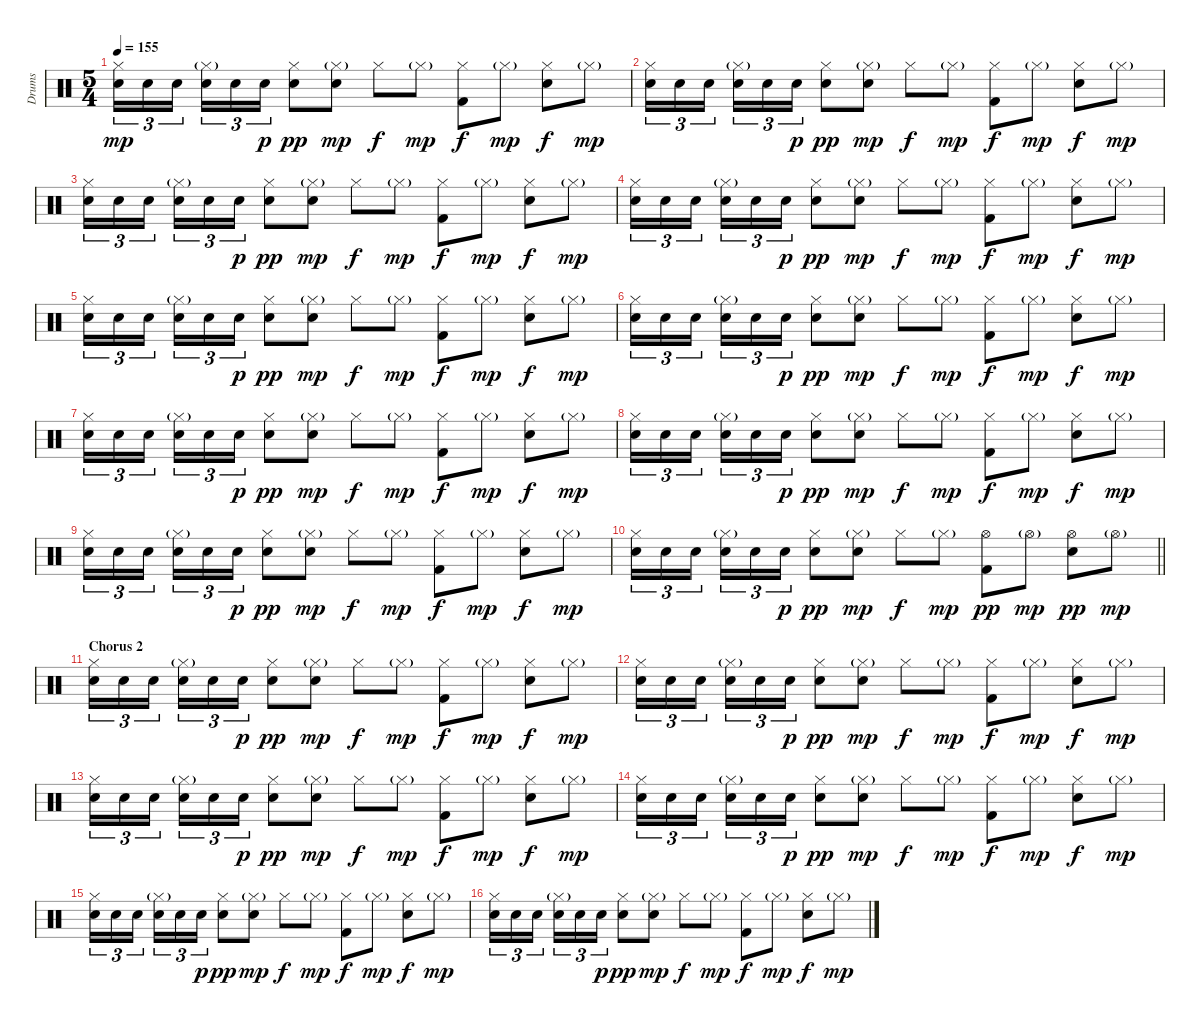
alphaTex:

\track ("Drums" "Drums") {instrument percussion}
\staff {score}
\articulation defaults
\ts (5 4)
\tempo 155
\clef neutral
\ks c
("Hi-Hat (closed)" "Electric Snare (hit)").16{tu (3 2) dy mp} "Electric Snare (hit)".16{tu (3 2)} "Electric Snare (hit)".16{tu (3 2) beam splitsecondary} ("Hi-Hat (closed)"{g} "Electric Snare (hit)").16{tu (3 2)} "Electric Snare (hit)".16{tu (3 2)} "Electric Snare (hit)".16{tu (3 2) dy p} ("Hi-Hat (closed)" "Electric Snare (hit)").8{dy pp} ("Hi-Hat (closed)"{g} "Electric Snare (hit)").8{dy mp} "Hi-Hat (closed)".8{dy f} "Hi-Hat (closed)"{g}.8{dy mp} ("Hi-Hat (closed)" "Kick (hit) 2").8{dy f} "Hi-Hat (closed)"{g}.8{dy mp} ("Hi-Hat (closed)" "Electric Snare (hit)").8{dy f} "Hi-Hat (closed)"{g}.8{dy mp} |
("Hi-Hat (closed)" "Electric Snare (hit)").16{tu (3 2)} "Electric Snare (hit)".16{tu (3 2)} "Electric Snare (hit)".16{tu (3 2) beam splitsecondary} ("Hi-Hat (closed)"{g} "Electric Snare (hit)").16{tu (3 2)} "Electric Snare (hit)".16{tu (3 2)} "Electric Snare (hit)".16{tu (3 2) dy p} ("Hi-Hat (closed)" "Electric Snare (hit)").8{dy pp} ("Hi-Hat (closed)"{g} "Electric Snare (hit)").8{dy mp} "Hi-Hat (closed)".8{dy f} "Hi-Hat (closed)"{g}.8{dy mp} ("Hi-Hat (closed)" "Kick (hit) 2").8{dy f} "Hi-Hat (closed)"{g}.8{dy mp} ("Hi-Hat (closed)" "Electric Snare (hit)").8{dy f} "Hi-Hat (closed)"{g}.8{dy mp} |
("Hi-Hat (closed)" "Electric Snare (hit)").16{tu (3 2)} "Electric Snare (hit)".16{tu (3 2)} "Electric Snare (hit)".16{tu (3 2) beam splitsecondary} ("Hi-Hat (closed)"{g} "Electric Snare (hit)").16{tu (3 2)} "Electric Snare (hit)".16{tu (3 2)} "Electric Snare (hit)".16{tu (3 2) dy p} ("Hi-Hat (closed)" "Electric Snare (hit)").8{dy pp} ("Hi-Hat (closed)"{g} "Electric Snare (hit)").8{dy mp} "Hi-Hat (closed)".8{dy f} "Hi-Hat (closed)"{g}.8{dy mp} ("Hi-Hat (closed)" "Kick (hit) 2").8{dy f} "Hi-Hat (closed)"{g}.8{dy mp} ("Hi-Hat (closed)" "Electric Snare (hit)").8{dy f} "Hi-Hat (closed)"{g}.8{dy mp} |
("Hi-Hat (closed)" "Electric Snare (hit)").16{tu (3 2)} "Electric Snare (hit)".16{tu (3 2)} "Electric Snare (hit)".16{tu (3 2) beam splitsecondary} ("Hi-Hat (closed)"{g} "Electric Snare (hit)").16{tu (3 2)} "Electric Snare (hit)".16{tu (3 2)} "Electric Snare (hit)".16{tu (3 2) dy p} ("Hi-Hat (closed)" "Electric Snare (hit)").8{dy pp} ("Hi-Hat (closed)"{g} "Electric Snare (hit)").8{dy mp} "Hi-Hat (closed)".8{dy f} "Hi-Hat (closed)"{g}.8{dy mp} ("Hi-Hat (closed)" "Kick (hit) 2").8{dy f} "Hi-Hat (closed)"{g}.8{dy mp} ("Hi-Hat (closed)" "Electric Snare (hit)").8{dy f} "Hi-Hat (closed)"{g}.8{dy mp} |
("Hi-Hat (closed)" "Electric Snare (hit)").16{tu (3 2)} "Electric Snare (hit)".16{tu (3 2)} "Electric Snare (hit)".16{tu (3 2) beam splitsecondary} ("Hi-Hat (closed)"{g} "Electric Snare (hit)").16{tu (3 2)} "Electric Snare (hit)".16{tu (3 2)} "Electric Snare (hit)".16{tu (3 2) dy p} ("Hi-Hat (closed)" "Electric Snare (hit)").8{dy pp} ("Hi-Hat (closed)"{g} "Electric Snare (hit)").8{dy mp} "Hi-Hat (closed)".8{dy f} "Hi-Hat (closed)"{g}.8{dy mp} ("Hi-Hat (closed)" "Kick (hit) 2").8{dy f} "Hi-Hat (closed)"{g}.8{dy mp} ("Hi-Hat (closed)" "Electric Snare (hit)").8{dy f} "Hi-Hat (closed)"{g}.8{dy mp} |
("Hi-Hat (closed)" "Electric Snare (hit)").16{tu (3 2)} "Electric Snare (hit)".16{tu (3 2)} "Electric Snare (hit)".16{tu (3 2) beam splitsecondary} ("Hi-Hat (closed)"{g} "Electric Snare (hit)").16{tu (3 2)} "Electric Snare (hit)".16{tu (3 2)} "Electric Snare (hit)".16{tu (3 2) dy p} ("Hi-Hat (closed)" "Electric Snare (hit)").8{dy pp} ("Hi-Hat (closed)"{g} "Electric Snare (hit)").8{dy mp} "Hi-Hat (closed)".8{dy f} "Hi-Hat (closed)"{g}.8{dy mp} ("Hi-Hat (closed)" "Kick (hit) 2").8{dy f} "Hi-Hat (closed)"{g}.8{dy mp} ("Hi-Hat (closed)" "Electric Snare (hit)").8{dy f} "Hi-Hat (closed)"{g}.8{dy mp} |
("Hi-Hat (closed)" "Electric Snare (hit)").16{tu (3 2)} "Electric Snare (hit)".16{tu (3 2)} "Electric Snare (hit)".16{tu (3 2) beam splitsecondary} ("Hi-Hat (closed)"{g} "Electric Snare (hit)").16{tu (3 2)} "Electric Snare (hit)".16{tu (3 2)} "Electric Snare (hit)".16{tu (3 2) dy p} ("Hi-Hat (closed)" "Electric Snare (hit)").8{dy pp} ("Hi-Hat (closed)"{g} "Electric Snare (hit)").8{dy mp} "Hi-Hat (closed)".8{dy f} "Hi-Hat (closed)"{g}.8{dy mp} ("Hi-Hat (closed)" "Kick (hit) 2").8{dy f} "Hi-Hat (closed)"{g}.8{dy mp} ("Hi-Hat (closed)" "Electric Snare (hit)").8{dy f} "Hi-Hat (closed)"{g}.8{dy mp} |
("Hi-Hat (closed)" "Electric Snare (hit)").16{tu (3 2)} "Electric Snare (hit)".16{tu (3 2)} "Electric Snare (hit)".16{tu (3 2) beam splitsecondary} ("Hi-Hat (closed)"{g} "Electric Snare (hit)").16{tu (3 2)} "Electric Snare (hit)".16{tu (3 2)} "Electric Snare (hit)".16{tu (3 2) dy p} ("Hi-Hat (closed)" "Electric Snare (hit)").8{dy pp} ("Hi-Hat (closed)"{g} "Electric Snare (hit)").8{dy mp} "Hi-Hat (closed)".8{dy f} "Hi-Hat (closed)"{g}.8{dy mp} ("Hi-Hat (closed)" "Kick (hit) 2").8{dy f} "Hi-Hat (closed)"{g}.8{dy mp} ("Hi-Hat (closed)" "Electric Snare (hit)").8{dy f} "Hi-Hat (closed)"{g}.8{dy mp} |
("Hi-Hat (closed)" "Electric Snare (hit)").16{tu (3 2)} "Electric Snare (hit)".16{tu (3 2)} "Electric Snare (hit)".16{tu (3 2) beam splitsecondary} ("Hi-Hat (closed)"{g} "Electric Snare (hit)").16{tu (3 2)} "Electric Snare (hit)".16{tu (3 2)} "Electric Snare (hit)".16{tu (3 2) dy p} ("Hi-Hat (closed)" "Electric Snare (hit)").8{dy pp} ("Hi-Hat (closed)"{g} "Electric Snare (hit)").8{dy mp} "Hi-Hat (closed)".8{dy f} "Hi-Hat (closed)"{g}.8{dy mp} ("Hi-Hat (closed)" "Kick (hit) 2").8{dy f} "Hi-Hat (closed)"{g}.8{dy mp} ("Hi-Hat (closed)" "Electric Snare (hit)").8{dy f} "Hi-Hat (closed)"{g}.8{dy mp} |
\barLineRight lightlight
("Hi-Hat (closed)" "Electric Snare (hit)").16{tu (3 2)} "Electric Snare (hit)".16{tu (3 2)} "Electric Snare (hit)".16{tu (3 2) beam splitsecondary} ("Hi-Hat (closed)"{g} "Electric Snare (hit)").16{tu (3 2)} "Electric Snare (hit)".16{tu (3 2)} "Electric Snare (hit)".16{tu (3 2) dy p} ("Hi-Hat (closed)" "Electric Snare (hit)").8{dy pp} ("Hi-Hat (closed)"{g} "Electric Snare (hit)").8{dy mp} "Hi-Hat (closed)".8{dy f} "Hi-Hat (closed)"{g}.8{dy mp} ("Hi-Hat (open)" "Kick (hit) 2").8{dy pp} "Hi-Hat (open)"{g}.8{dy mp} ("Hi-Hat (open)" "Electric Snare (hit)").8{dy pp} "Hi-Hat (open)"{g}.8{dy mp} |
\section ("" "Chorus 2")
("Hi-Hat (closed)" "Electric Snare (hit)").16{tu (3 2)} "Electric Snare (hit)".16{tu (3 2)} "Electric Snare (hit)".16{tu (3 2) beam splitsecondary} ("Hi-Hat (closed)"{g} "Electric Snare (hit)").16{tu (3 2)} "Electric Snare (hit)".16{tu (3 2)} "Electric Snare (hit)".16{tu (3 2) dy p} ("Hi-Hat (closed)" "Electric Snare (hit)").8{dy pp} ("Hi-Hat (closed)"{g} "Electric Snare (hit)").8{dy mp} "Hi-Hat (closed)".8{dy f} "Hi-Hat (closed)"{g}.8{dy mp} ("Hi-Hat (closed)" "Kick (hit) 2").8{dy f} "Hi-Hat (closed)"{g}.8{dy mp} ("Hi-Hat (closed)" "Electric Snare (hit)").8{dy f} "Hi-Hat (closed)"{g}.8{dy mp} |
("Hi-Hat (closed)" "Electric Snare (hit)").16{tu (3 2)} "Electric Snare (hit)".16{tu (3 2)} "Electric Snare (hit)".16{tu (3 2) beam splitsecondary} ("Hi-Hat (closed)"{g} "Electric Snare (hit)").16{tu (3 2)} "Electric Snare (hit)".16{tu (3 2)} "Electric Snare (hit)".16{tu (3 2) dy p} ("Hi-Hat (closed)" "Electric Snare (hit)").8{dy pp} ("Hi-Hat (closed)"{g} "Electric Snare (hit)").8{dy mp} "Hi-Hat (closed)".8{dy f} "Hi-Hat (closed)"{g}.8{dy mp} ("Hi-Hat (closed)" "Kick (hit) 2").8{dy f} "Hi-Hat (closed)"{g}.8{dy mp} ("Hi-Hat (closed)" "Electric Snare (hit)").8{dy f} "Hi-Hat (closed)"{g}.8{dy mp} |
("Hi-Hat (closed)" "Electric Snare (hit)").16{tu (3 2)} "Electric Snare (hit)".16{tu (3 2)} "Electric Snare (hit)".16{tu (3 2) beam splitsecondary} ("Hi-Hat (closed)"{g} "Electric Snare (hit)").16{tu (3 2)} "Electric Snare (hit)".16{tu (3 2)} "Electric Snare (hit)".16{tu (3 2) dy p} ("Hi-Hat (closed)" "Electric Snare (hit)").8{dy pp} ("Hi-Hat (closed)"{g} "Electric Snare (hit)").8{dy mp} "Hi-Hat (closed)".8{dy f} "Hi-Hat (closed)"{g}.8{dy mp} ("Hi-Hat (closed)" "Kick (hit) 2").8{dy f} "Hi-Hat (closed)"{g}.8{dy mp} ("Hi-Hat (closed)" "Electric Snare (hit)").8{dy f} "Hi-Hat (closed)"{g}.8{dy mp} |
("Hi-Hat (closed)" "Electric Snare (hit)").16{tu (3 2)} "Electric Snare (hit)".16{tu (3 2)} "Electric Snare (hit)".16{tu (3 2) beam splitsecondary} ("Hi-Hat (closed)"{g} "Electric Snare (hit)").16{tu (3 2)} "Electric Snare (hit)".16{tu (3 2)} "Electric Snare (hit)".16{tu (3 2) dy p} ("Hi-Hat (closed)" "Electric Snare (hit)").8{dy pp} ("Hi-Hat (closed)"{g} "Electric Snare (hit)").8{dy mp} "Hi-Hat (closed)".8{dy f} "Hi-Hat (closed)"{g}.8{dy mp} ("Hi-Hat (closed)" "Kick (hit) 2").8{dy f} "Hi-Hat (closed)"{g}.8{dy mp} ("Hi-Hat (closed)" "Electric Snare (hit)").8{dy f} "Hi-Hat (closed)"{g}.8{dy mp} |
("Hi-Hat (closed)" "Electric Snare (hit)").16{tu (3 2)} "Electric Snare (hit)".16{tu (3 2)} "Electric Snare (hit)".16{tu (3 2) beam splitsecondary} ("Hi-Hat (closed)"{g} "Electric Snare (hit)").16{tu (3 2)} "Electric Snare (hit)".16{tu (3 2)} "Electric Snare (hit)".16{tu (3 2) dy p} ("Hi-Hat (closed)" "Electric Snare (hit)").8{dy pp} ("Hi-Hat (closed)"{g} "Electric Snare (hit)").8{dy mp} "Hi-Hat (closed)".8{dy f} "Hi-Hat (closed)"{g}.8{dy mp} ("Hi-Hat (closed)" "Kick (hit) 2").8{dy f} "Hi-Hat (closed)"{g}.8{dy mp} ("Hi-Hat (closed)" "Electric Snare (hit)").8{dy f} "Hi-Hat (closed)"{g}.8{dy mp} |
("Hi-Hat (closed)" "Electric Snare (hit)").16{tu (3 2)} "Electric Snare (hit)".16{tu (3 2)} "Electric Snare (hit)".16{tu (3 2) beam splitsecondary} ("Hi-Hat (closed)"{g} "Electric Snare (hit)").16{tu (3 2)} "Electric Snare (hit)".16{tu (3 2)} "Electric Snare (hit)".16{tu (3 2) dy p} ("Hi-Hat (closed)" "Electric Snare (hit)").8{dy pp} ("Hi-Hat (closed)"{g} "Electric Snare (hit)").8{dy mp} "Hi-Hat (closed)".8{dy f} "Hi-Hat (closed)"{g}.8{dy mp} ("Hi-Hat (closed)" "Kick (hit) 2").8{dy f} "Hi-Hat (closed)"{g}.8{dy mp} ("Hi-Hat (closed)" "Electric Snare (hit)").8{dy f} "Hi-Hat (closed)"{g}.8{dy mp}
